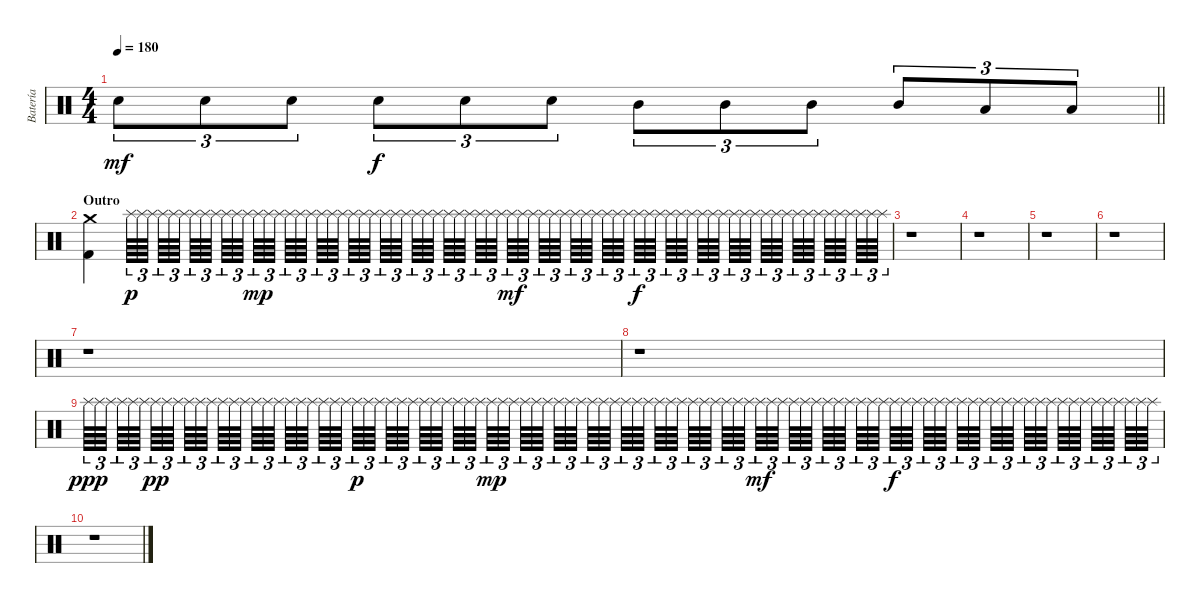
\track ("Batería" "Batería") {instrument percussion}
\staff {score}
\articulation defaults
\ts (4 4)
\tempo 180
\clef neutral
\barLineRight lightlight
\ks c "Snare (hit) 2".8{tu (3 2) dy mf} "Snare (hit) 2".8{tu (3 2)} "Snare (hit) 2".8{tu (3 2)} "Snare (hit) 2".8{tu (3 2) dy f} "Snare (hit) 2".8{tu (3 2)} "Snare (hit) 2".8{tu (3 2)} "Mid Tom (hit)".8{tu (3 2)} "Mid Tom (hit)".8{tu (3 2)} "Mid Tom (hit)".8{tu (3 2)} "Mid Tom (hit)".8{tu (3 2)} "Low Tom (hit)".8{tu (3 2)} "Low Tom (hit)".8{tu (3 2)}
|
\section ("" "Outro")
("Crash medium (hit)" "Kick (hit) 2").4 "Splash (hit)".64{tu (3 2) dy p} "Splash (hit)".64{tu (3 2)} "Splash (hit)".64{tu (3 2) beam splitsecondary} "Splash (hit)".64{tu (3 2)} "Splash (hit)".64{tu (3 2)} "Splash (hit)".64{tu (3 2) beam splitsecondary} "Splash (hit)".64{tu (3 2)} "Splash (hit)".64{tu (3 2)} "Splash (hit)".64{tu (3 2) beam splitsecondary} "Splash (hit)".64{tu (3 2)} "Splash (hit)".64{tu (3 2)} "Splash (hit)".64{tu (3 2) beam splitsecondary} "Splash (hit)".64{tu (3 2) dy mp} "Splash (hit)".64{tu (3 2)} "Splash (hit)".64{tu (3 2) beam splitsecondary} "Splash (hit)".64{tu (3 2)} "Splash (hit)".64{tu (3 2)} "Splash (hit)".64{tu (3 2) beam splitsecondary} "Splash (hit)".64{tu (3 2)} "Splash (hit)".64{tu (3 2)} "Splash (hit)".64{tu (3 2) beam splitsecondary} "Splash (hit)".64{tu (3 2)} "Splash (hit)".64{tu (3 2)} "Splash (hit)".64{tu (3 2)} "Splash (hit)".64{tu (3 2)} "Splash (hit)".64{tu (3 2)} "Splash (hit)".64{tu (3 2) beam splitsecondary} "Splash (hit)".64{tu (3 2)} "Splash (hit)".64{tu (3 2)} "Splash (hit)".64{tu (3 2) beam splitsecondary} "Splash (hit)".64{tu (3 2)} "Splash (hit)".64{tu (3 2)} "Splash (hit)".64{tu (3 2) beam splitsecondary} "Splash (hit)".64{tu (3 2)} "Splash (hit)".64{tu (3 2)} "Splash (hit)".64{tu (3 2) beam splitsecondary} "Splash (hit)".64{tu (3 2) dy mf} "Splash (hit)".64{tu (3 2)} "Splash (hit)".64{tu (3 2) beam splitsecondary} "Splash (hit)".64{tu (3 2)} "Splash (hit)".64{tu (3 2)} "Splash (hit)".64{tu (3 2) beam splitsecondary} "Splash (hit)".64{tu (3 2)} "Splash (hit)".64{tu (3 2)} "Splash (hit)".64{tu (3 2) beam splitsecondary} "Splash (hit)".64{tu (3 2)} "Splash (hit)".64{tu (3 2)} "Splash (hit)".64{tu (3 2)} "Splash (hit)".64{tu (3 2) dy f} "Splash (hit)".64{tu (3 2)} "Splash (hit)".64{tu (3 2) beam splitsecondary} "Splash (hit)".64{tu (3 2)} "Splash (hit)".64{tu (3 2)} "Splash (hit)".64{tu (3 2) beam splitsecondary} "Splash (hit)".64{tu (3 2)} "Splash (hit)".64{tu (3 2)} "Splash (hit)".64{tu (3 2) beam splitsecondary} "Splash (hit)".64{tu (3 2)} "Splash (hit)".64{tu (3 2)} "Splash (hit)".64{tu (3 2) beam splitsecondary} "Splash (hit)".64{tu (3 2)} "Splash (hit)".64{tu (3 2)} "Splash (hit)".64{tu (3 2) beam splitsecondary} "Splash (hit)".64{tu (3 2)} "Splash (hit)".64{tu (3 2)} "Splash (hit)".64{tu (3 2) beam splitsecondary} "Splash (hit)".64{tu (3 2)} "Splash (hit)".64{tu (3 2)} "Splash (hit)".64{tu (3 2) beam splitsecondary} "Splash (hit)".64{tu (3 2)} "Splash (hit)".64{tu (3 2)} "Splash (hit)".64{tu (3 2)} |
r.1 |
r.1 |
r.1 |
r.1 |
r.1 |
r.1 |
"Splash (hit)".64{tu (3 2) dy ppp} "Splash (hit)".64{tu (3 2)} "Splash (hit)".64{tu (3 2) beam splitsecondary} "Splash (hit)".64{tu (3 2)} "Splash (hit)".64{tu (3 2)} "Splash (hit)".64{tu (3 2) beam splitsecondary} "Splash (hit)".64{tu (3 2) dy pp} "Splash (hit)".64{tu (3 2)} "Splash (hit)".64{tu (3 2) beam splitsecondary} "Splash (hit)".64{tu (3 2)} "Splash (hit)".64{tu (3 2)} "Splash (hit)".64{tu (3 2) beam splitsecondary} "Splash (hit)".64{tu (3 2)} "Splash (hit)".64{tu (3 2)} "Splash (hit)".64{tu (3 2) beam splitsecondary} "Splash (hit)".64{tu (3 2)} "Splash (hit)".64{tu (3 2)} "Splash (hit)".64{tu (3 2) beam splitsecondary} "Splash (hit)".64{tu (3 2)} "Splash (hit)".64{tu (3 2)} "Splash (hit)".64{tu (3 2) beam splitsecondary} "Splash (hit)".64{tu (3 2)} "Splash (hit)".64{tu (3 2)} "Splash (hit)".64{tu (3 2)} "Splash (hit)".64{tu (3 2) dy p} "Splash (hit)".64{tu (3 2)} "Splash (hit)".64{tu (3 2) beam splitsecondary} "Splash (hit)".64{tu (3 2)} "Splash (hit)".64{tu (3 2)} "Splash (hit)".64{tu (3 2) beam splitsecondary} "Splash (hit)".64{tu (3 2)} "Splash (hit)".64{tu (3 2)} "Splash (hit)".64{tu (3 2) beam splitsecondary} "Splash (hit)".64{tu (3 2)} "Splash (hit)".64{tu (3 2)} "Splash (hit)".64{tu (3 2) beam splitsecondary} "Splash (hit)".64{tu (3 2) dy mp} "Splash (hit)".64{tu (3 2)} "Splash (hit)".64{tu (3 2) beam splitsecondary} "Splash (hit)".64{tu (3 2)} "Splash (hit)".64{tu (3 2)} "Splash (hit)".64{tu (3 2) beam splitsecondary} "Splash (hit)".64{tu (3 2)} "Splash (hit)".64{tu (3 2)} "Splash (hit)".64{tu (3 2) beam splitsecondary} "Splash (hit)".64{tu (3 2)} "Splash (hit)".64{tu (3 2)} "Splash (hit)".64{tu (3 2)} "Splash (hit)".64{tu (3 2)} "Splash (hit)".64{tu (3 2)} "Splash (hit)".64{tu (3 2) beam splitsecondary} "Splash (hit)".64{tu (3 2)} "Splash (hit)".64{tu (3 2)} "Splash (hit)".64{tu (3 2) beam splitsecondary} "Splash (hit)".64{tu (3 2)} "Splash (hit)".64{tu (3 2)} "Splash (hit)".64{tu (3 2) beam splitsecondary} "Splash (hit)".64{tu (3 2)} "Splash (hit)".64{tu (3 2)} "Splash (hit)".64{tu (3 2) beam splitsecondary} "Splash (hit)".64{tu (3 2) dy mf} "Splash (hit)".64{tu (3 2)} "Splash (hit)".64{tu (3 2) beam splitsecondary} "Splash (hit)".64{tu (3 2)} "Splash (hit)".64{tu (3 2)} "Splash (hit)".64{tu (3 2) beam splitsecondary} "Splash (hit)".64{tu (3 2)} "Splash (hit)".64{tu (3 2)} "Splash (hit)".64{tu (3 2) beam splitsecondary} "Splash (hit)".64{tu (3 2)} "Splash (hit)".64{tu (3 2)} "Splash (hit)".64{tu (3 2)} "Splash (hit)".64{tu (3 2) dy f} "Splash (hit)".64{tu (3 2)} "Splash (hit)".64{tu (3 2) beam splitsecondary} "Splash (hit)".64{tu (3 2)} "Splash (hit)".64{tu (3 2)} "Splash (hit)".64{tu (3 2) beam splitsecondary} "Splash (hit)".64{tu (3 2)} "Splash (hit)".64{tu (3 2)} "Splash (hit)".64{tu (3 2) beam splitsecondary} "Splash (hit)".64{tu (3 2)} "Splash (hit)".64{tu (3 2)} "Splash (hit)".64{tu (3 2) beam splitsecondary} "Splash (hit)".64{tu (3 2)} "Splash (hit)".64{tu (3 2)} "Splash (hit)".64{tu (3 2) beam splitsecondary} "Splash (hit)".64{tu (3 2)} "Splash (hit)".64{tu (3 2)} "Splash (hit)".64{tu (3 2) beam splitsecondary} "Splash (hit)".64{tu (3 2)} "Splash (hit)".64{tu (3 2)} "Splash (hit)".64{tu (3 2) beam splitsecondary} "Splash (hit)".64{tu (3 2)} "Splash (hit)".64{tu (3 2)} "Splash (hit)".64{tu (3 2)} |
r.1
